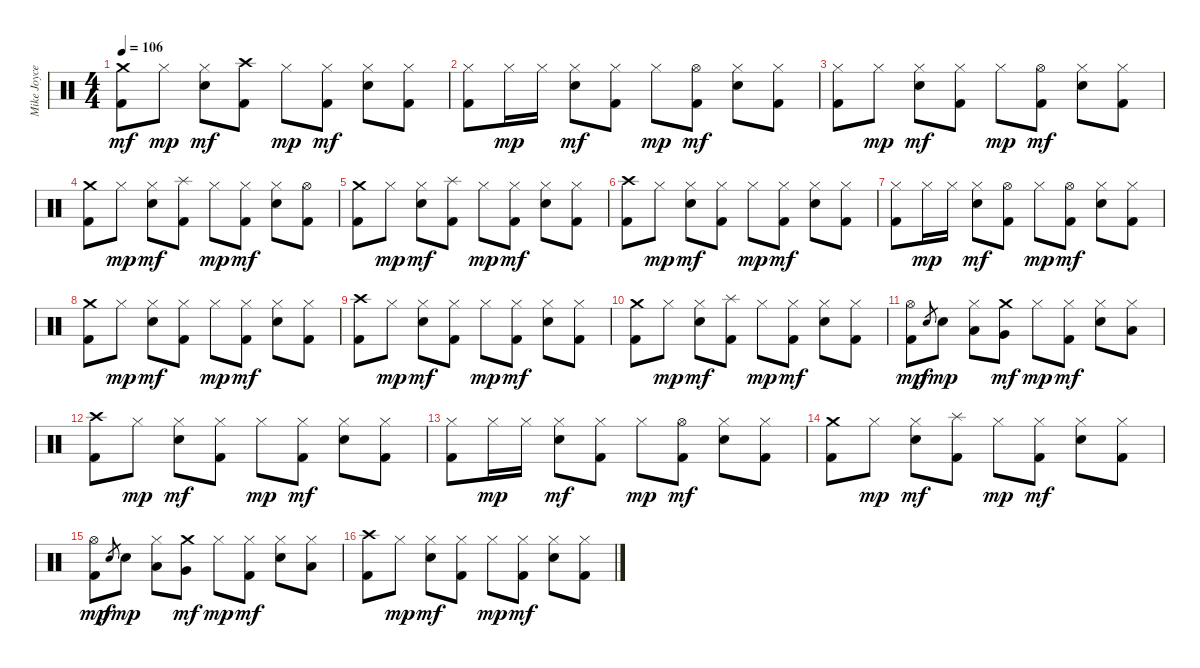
\track ("Mike Joyce" "Mike Joyce") {instrument percussion}
\staff {score}
\articulation defaults
\ts (4 4)
\tempo 106
\clef neutral
\ks c
("Crash medium (hit)" "Kick (hit) 2").8{dy mf} "Hi-Hat (closed)".8{dy mp} ("Hi-Hat (closed)" "Electric Snare (hit)").8{dy mf} ("Crash high (hit)" "Kick (hit) 2").8 "Hi-Hat (closed)".8{dy mp} ("Hi-Hat (closed)" "Kick (hit) 2").8{dy mf} ("Hi-Hat (closed)" "Electric Snare (hit)").8 ("Hi-Hat (closed)" "Kick (hit) 2").8 |
("Hi-Hat (closed)" "Kick (hit) 2").8 "Hi-Hat (closed)".16{dy mp} "Hi-Hat (closed)".16 ("Hi-Hat (closed)" "Electric Snare (hit)").8{dy mf} ("Hi-Hat (closed)" "Kick (hit) 2").8 "Hi-Hat (closed)".8{dy mp} ("Hi-Hat (open)" "Kick (hit) 2").8{dy mf} ("Hi-Hat (closed)" "Electric Snare (hit)").8 ("Hi-Hat (closed)" "Kick (hit) 2").8 |
("Hi-Hat (closed)" "Kick (hit) 2").8 "Hi-Hat (closed)".8{dy mp} ("Hi-Hat (closed)" "Electric Snare (hit)").8{dy mf} ("Hi-Hat (closed)" "Kick (hit) 2").8 "Hi-Hat (closed)".8{dy mp} ("Hi-Hat (open)" "Kick (hit) 2").8{dy mf} ("Hi-Hat (closed)" "Electric Snare (hit)").8 ("Hi-Hat (closed)" "Kick (hit) 2").8 |
("Crash medium (hit)" "Kick (hit) 2").8 "Hi-Hat (closed)".8{dy mp} ("Hi-Hat (closed)" "Electric Snare (hit)").8{dy mf} ("Splash (hit)" "Kick (hit) 2").8 "Hi-Hat (closed)".8{dy mp} ("Hi-Hat (closed)" "Kick (hit) 2").8{dy mf} ("Hi-Hat (closed)" "Electric Snare (hit)").8 ("Hi-Hat (open)" "Kick (hit) 2").8 |
("Crash medium (hit)" "Kick (hit) 2").8 "Hi-Hat (closed)".8{dy mp} ("Hi-Hat (closed)" "Electric Snare (hit)").8{dy mf} ("Splash (hit)" "Kick (hit) 2").8 "Hi-Hat (closed)".8{dy mp} ("Hi-Hat (closed)" "Kick (hit) 2").8{dy mf} ("Hi-Hat (closed)" "Electric Snare (hit)").8 ("Hi-Hat (closed)" "Kick (hit) 2").8 |
("Crash high (hit)" "Kick (hit) 2").8 "Hi-Hat (closed)".8{dy mp} ("Hi-Hat (closed)" "Electric Snare (hit)").8{dy mf} ("Hi-Hat (closed)" "Kick (hit) 2").8 "Hi-Hat (closed)".8{dy mp} ("Hi-Hat (closed)" "Kick (hit) 2").8{dy mf} ("Hi-Hat (closed)" "Electric Snare (hit)").8 ("Hi-Hat (closed)" "Kick (hit) 2").8 |
("Hi-Hat (closed)" "Kick (hit) 2").8 "Hi-Hat (closed)".16{dy mp} "Hi-Hat (closed)".16 ("Hi-Hat (closed)" "Electric Snare (hit)").8{dy mf} ("Hi-Hat (open)" "Kick (hit) 2").8 "Hi-Hat (closed)".8{dy mp} ("Hi-Hat (open)" "Kick (hit) 2").8{dy mf} ("Hi-Hat (closed)" "Electric Snare (hit)").8 ("Hi-Hat (closed)" "Kick (hit) 2").8 |
("Crash medium (hit)" "Kick (hit) 2").8 "Hi-Hat (closed)".8{dy mp} ("Hi-Hat (closed)" "Electric Snare (hit)").8{dy mf} ("Hi-Hat (closed)" "Kick (hit) 2").8 "Hi-Hat (closed)".8{dy mp} ("Hi-Hat (closed)" "Kick (hit) 2").8{dy mf} ("Hi-Hat (closed)" "Electric Snare (hit)").8 ("Hi-Hat (closed)" "Kick (hit) 2").8 |
("Crash high (hit)" "Kick (hit) 2").8 "Hi-Hat (closed)".8{dy mp} ("Hi-Hat (closed)" "Electric Snare (hit)").8{dy mf} ("Hi-Hat (closed)" "Kick (hit) 2").8 "Hi-Hat (closed)".8{dy mp} ("Hi-Hat (closed)" "Kick (hit) 2").8{dy mf} ("Hi-Hat (closed)" "Electric Snare (hit)").8 ("Hi-Hat (closed)" "Kick (hit) 2").8 |
("Crash medium (hit)" "Kick (hit) 2").8 "Hi-Hat (closed)".8{dy mp} ("Hi-Hat (closed)" "Electric Snare (hit)").8{dy mf} ("Splash (hit)" "Kick (hit) 2").8 "Hi-Hat (closed)".8{dy mp} ("Hi-Hat (closed)" "Kick (hit) 2").8{dy mf} ("Hi-Hat (closed)" "Electric Snare (hit)").8 ("Hi-Hat (closed)" "Kick (hit) 2").8 |
("Hi-Hat (open)" "Kick (hit) 2").8{dy mp} "Electric Snare (hit)".8{gr dy f} "Electric Snare (hit)".8{dy mp} ("Hi-Hat (closed)" "Low Tom (hit)").8 ("Crash medium (hit)" "Very Low Tom (hit)").8{dy mf} "Hi-Hat (closed)".8{dy mp} ("Hi-Hat (closed)" "Kick (hit) 2").8{dy mf} ("Hi-Hat (closed)" "Electric Snare (hit)").8 ("Hi-Hat (closed)" "Low Floor Tom (hit)").8 |
("Crash high (hit)" "Kick (hit) 2").8 "Hi-Hat (closed)".8{dy mp} ("Hi-Hat (closed)" "Electric Snare (hit)").8{dy mf} ("Hi-Hat (closed)" "Kick (hit) 2").8 "Hi-Hat (closed)".8{dy mp} ("Hi-Hat (closed)" "Kick (hit) 2").8{dy mf} ("Hi-Hat (closed)" "Electric Snare (hit)").8 ("Hi-Hat (closed)" "Kick (hit) 2").8 |
("Hi-Hat (closed)" "Kick (hit) 2").8 "Hi-Hat (closed)".16{dy mp} "Hi-Hat (closed)".16 ("Hi-Hat (closed)" "Electric Snare (hit)").8{dy mf} ("Hi-Hat (closed)" "Kick (hit) 2").8 "Hi-Hat (closed)".8{dy mp} ("Hi-Hat (open)" "Kick (hit) 2").8{dy mf} ("Hi-Hat (closed)" "Electric Snare (hit)").8 ("Hi-Hat (closed)" "Kick (hit) 2").8 |
("Crash medium (hit)" "Kick (hit) 2").8 "Hi-Hat (closed)".8{dy mp} ("Hi-Hat (closed)" "Electric Snare (hit)").8{dy mf} ("Splash (hit)" "Kick (hit) 2").8 "Hi-Hat (closed)".8{dy mp} ("Hi-Hat (closed)" "Kick (hit) 2").8{dy mf} ("Hi-Hat (closed)" "Electric Snare (hit)").8 ("Hi-Hat (closed)" "Kick (hit) 2").8 |
("Hi-Hat (open)" "Kick (hit) 2").8{dy mp} "Electric Snare (hit)".8{gr dy f} "Electric Snare (hit)".8{dy mp} ("Hi-Hat (closed)" "Low Tom (hit)").8 ("Crash medium (hit)" "Very Low Tom (hit)").8{dy mf} "Hi-Hat (closed)".8{dy mp} ("Hi-Hat (closed)" "Kick (hit) 2").8{dy mf} ("Hi-Hat (closed)" "Electric Snare (hit)").8 ("Hi-Hat (closed)" "Low Floor Tom (hit)").8 |
("Crash high (hit)" "Kick (hit) 2").8 "Hi-Hat (closed)".8{dy mp} ("Hi-Hat (closed)" "Electric Snare (hit)").8{dy mf} ("Hi-Hat (closed)" "Kick (hit) 2").8 "Hi-Hat (closed)".8{dy mp} ("Hi-Hat (closed)" "Kick (hit) 2").8{dy mf} ("Hi-Hat (closed)" "Electric Snare (hit)").8 ("Hi-Hat (closed)" "Kick (hit) 2").8
